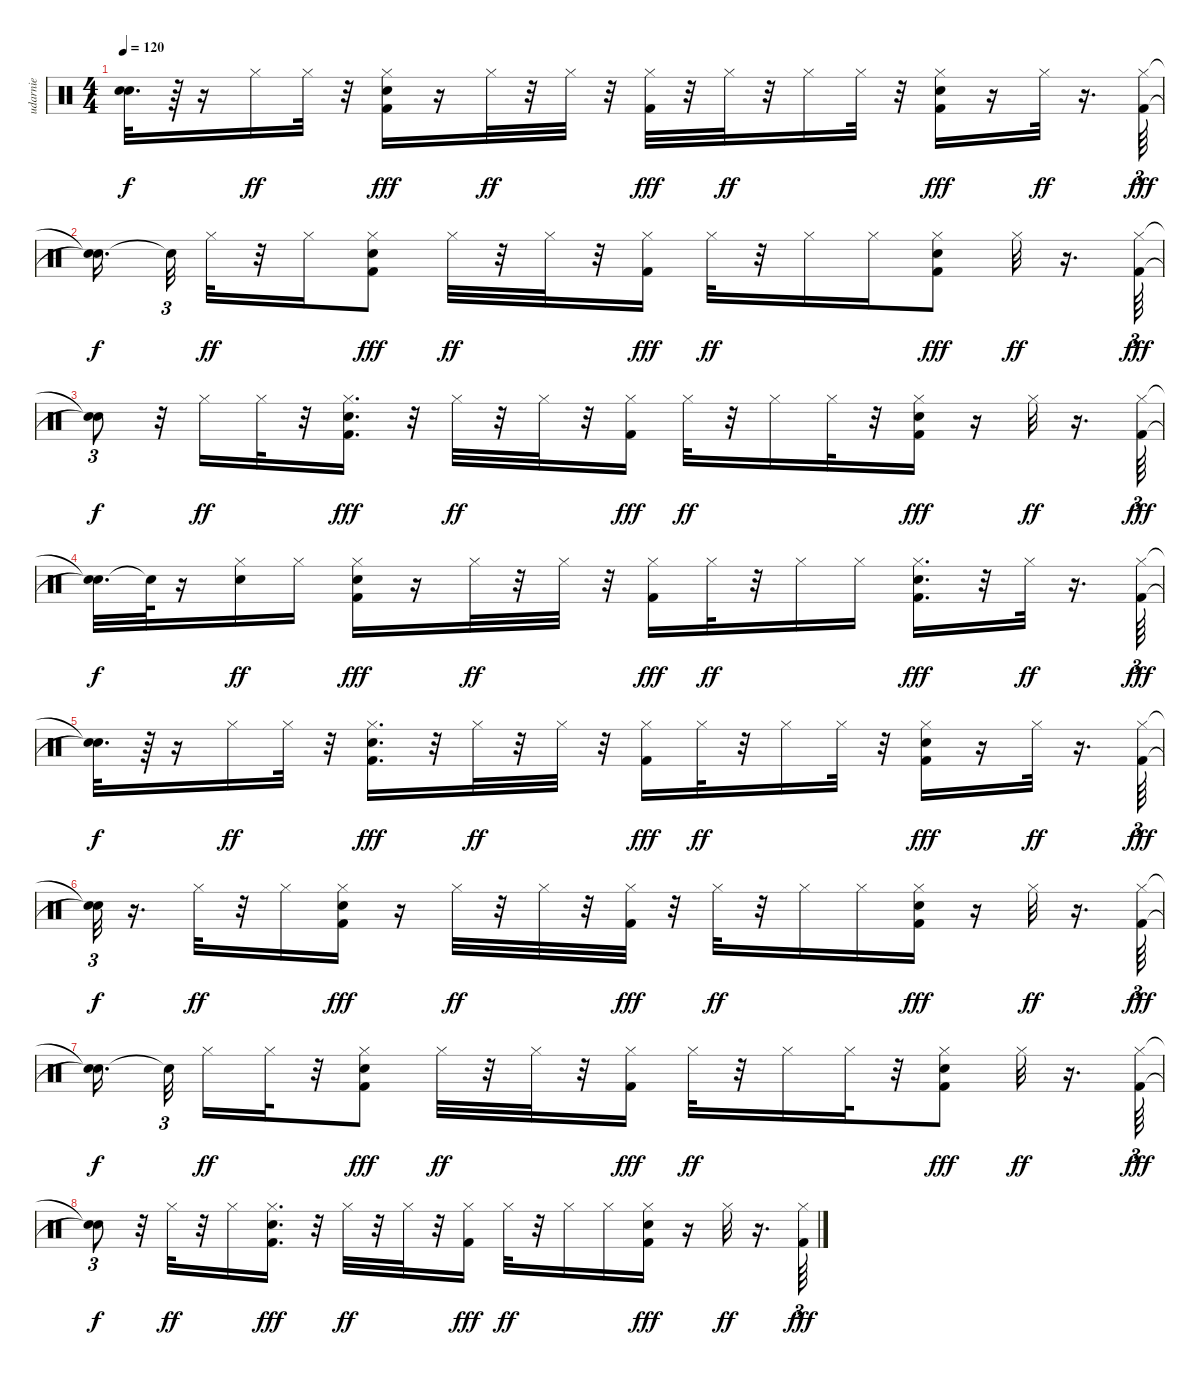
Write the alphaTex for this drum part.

\track ("udarnie" "udarnie") {instrument percussion}
\staff {score}
\articulation defaults
\ts (4 4)
\tempo 120
\clef neutral
\ks c
("Snare (hit)"{t} "Snare (hit)"{t}).32{d dy f} r.64 r.16 "Hi-Hat (closed)".16{dy ff} "Hi-Hat (closed)".32 r.32 ("Hi-Hat (closed)" "Electric Snare (hit)" "Kick (hit) 2").16{dy fff} r.16 "Hi-Hat (closed)".32{dy ff} r.32 "Hi-Hat (closed)".32 r.32 ("Hi-Hat (closed)" "Kick (hit) 2").32{dy fff} r.32 "Hi-Hat (closed)".32{dy ff} r.32 "Hi-Hat (closed)".16 "Hi-Hat (closed)".32 r.32 ("Hi-Hat (closed)" "Electric Snare (hit)" "Kick (hit) 2").16{dy fff} r.16 "Hi-Hat (closed)".32{dy ff} r.16{d} ("Hi-Hat (closed)" "Kick (hit) 2").64{tu (3 2) dy fff} |
("Snare (hit)"{t} "Snare (hit)"{t}).16{d dy f beam splitsecondary} "Snare (hit)"{t}.32{tu (3 2)} "Hi-Hat (closed)".32{dy ff} r.32 "Hi-Hat (closed)".16 ("Hi-Hat (closed)" "Electric Snare (hit)" "Kick (hit) 2").8{dy fff} "Hi-Hat (closed)".32{dy ff} r.32 "Hi-Hat (closed)".32 r.32 ("Hi-Hat (closed)" "Kick (hit) 2").16{dy fff} "Hi-Hat (closed)".32{dy ff} r.32 "Hi-Hat (closed)".16 "Hi-Hat (closed)".16 ("Hi-Hat (closed)" "Electric Snare (hit)" "Kick (hit) 2").8{dy fff} "Hi-Hat (closed)".32{dy ff} r.16{d} ("Hi-Hat (closed)" "Kick (hit) 2").64{tu (3 2) dy fff} |
("Snare (hit)"{t} "Snare (hit)"{t}).8{tu (3 2) dy f} r.32 "Hi-Hat (closed)".16{dy ff} "Hi-Hat (closed)".32 r.32 ("Hi-Hat (closed)" "Electric Snare (hit)" "Kick (hit) 2").16{d dy fff} r.32 "Hi-Hat (closed)".32{dy ff} r.32 "Hi-Hat (closed)".32 r.32 ("Hi-Hat (closed)" "Kick (hit) 2").16{dy fff} "Hi-Hat (closed)".32{dy ff} r.32 "Hi-Hat (closed)".16 "Hi-Hat (closed)".32 r.32 ("Hi-Hat (closed)" "Electric Snare (hit)" "Kick (hit) 2").16{dy fff} r.16 "Hi-Hat (closed)".32{dy ff} r.16{d} ("Hi-Hat (closed)" "Kick (hit) 2").64{tu (3 2) dy fff} |
("Snare (hit)"{t} "Snare (hit)"{t}).32{d dy f} "Snare (hit)"{t}.64 r.16 ("Hi-Hat (closed)" "Electric Snare (hit)").16{dy ff} "Hi-Hat (closed)".16 ("Hi-Hat (closed)" "Electric Snare (hit)" "Kick (hit) 2").16{dy fff} r.16 "Hi-Hat (closed)".32{dy ff} r.32 "Hi-Hat (closed)".32 r.32 ("Hi-Hat (closed)" "Kick (hit) 2").16{dy fff} "Hi-Hat (closed)".32{dy ff} r.32 "Hi-Hat (closed)".16 "Hi-Hat (closed)".16 ("Hi-Hat (closed)" "Electric Snare (hit)" "Kick (hit) 2").16{d dy fff} r.32 "Hi-Hat (closed)".32{dy ff} r.16{d} ("Hi-Hat (closed)" "Kick (hit) 2").64{tu (3 2) dy fff} |
("Snare (hit)"{t} "Snare (hit)"{t}).32{d dy f} r.64 r.16 "Hi-Hat (closed)".16{dy ff} "Hi-Hat (closed)".32 r.32 ("Hi-Hat (closed)" "Electric Snare (hit)" "Kick (hit) 2").16{d dy fff} r.32 "Hi-Hat (closed)".32{dy ff} r.32 "Hi-Hat (closed)".32 r.32 ("Hi-Hat (closed)" "Kick (hit) 2").16{dy fff} "Hi-Hat (closed)".32{dy ff} r.32 "Hi-Hat (closed)".16 "Hi-Hat (closed)".32 r.32 ("Hi-Hat (closed)" "Electric Snare (hit)" "Kick (hit) 2").16{dy fff} r.16 "Hi-Hat (closed)".32{dy ff} r.16{d} ("Hi-Hat (closed)" "Kick (hit) 2").64{tu (3 2) dy fff} |
("Snare (hit)"{t} "Snare (hit)"{t}).32{tu (3 2) dy f} r.16{d} "Hi-Hat (closed)".32{dy ff} r.32 "Hi-Hat (closed)".16 ("Hi-Hat (closed)" "Electric Snare (hit)" "Kick (hit) 2").16{dy fff} r.16 "Hi-Hat (closed)".32{dy ff} r.32 "Hi-Hat (closed)".32 r.32 ("Hi-Hat (closed)" "Kick (hit) 2").32{dy fff} r.32 "Hi-Hat (closed)".32{dy ff} r.32 "Hi-Hat (closed)".16 "Hi-Hat (closed)".16 ("Hi-Hat (closed)" "Electric Snare (hit)" "Kick (hit) 2").16{dy fff} r.16 "Hi-Hat (closed)".32{dy ff} r.16{d} ("Hi-Hat (closed)" "Kick (hit) 2").64{tu (3 2) dy fff} |
("Snare (hit)"{t} "Snare (hit)"{t}).16{d dy f beam splitsecondary} "Snare (hit)"{t}.32{tu (3 2) beam splitsecondary} "Hi-Hat (closed)".16{dy ff} "Hi-Hat (closed)".32 r.32 ("Hi-Hat (closed)" "Electric Snare (hit)" "Kick (hit) 2").8{dy fff} "Hi-Hat (closed)".32{dy ff} r.32 "Hi-Hat (closed)".32 r.32 ("Hi-Hat (closed)" "Kick (hit) 2").16{dy fff} "Hi-Hat (closed)".32{dy ff} r.32 "Hi-Hat (closed)".16 "Hi-Hat (closed)".32 r.32 ("Hi-Hat (closed)" "Electric Snare (hit)" "Kick (hit) 2").8{dy fff} "Hi-Hat (closed)".32{dy ff} r.16{d} ("Hi-Hat (closed)" "Kick (hit) 2").64{tu (3 2) dy fff} |
("Snare (hit)"{t} "Snare (hit)"{t}).8{tu (3 2) dy f} r.32 "Hi-Hat (closed)".32{dy ff} r.32 "Hi-Hat (closed)".16 ("Hi-Hat (closed)" "Electric Snare (hit)" "Kick (hit) 2").16{d dy fff} r.32 "Hi-Hat (closed)".32{dy ff} r.32 "Hi-Hat (closed)".32 r.32 ("Hi-Hat (closed)" "Kick (hit) 2").16{dy fff} "Hi-Hat (closed)".32{dy ff} r.32 "Hi-Hat (closed)".16 "Hi-Hat (closed)".16 ("Hi-Hat (closed)" "Electric Snare (hit)" "Kick (hit) 2").16{dy fff} r.16 "Hi-Hat (closed)".32{dy ff} r.16{d} ("Hi-Hat (closed)" "Kick (hit) 2").64{tu (3 2) dy fff}
